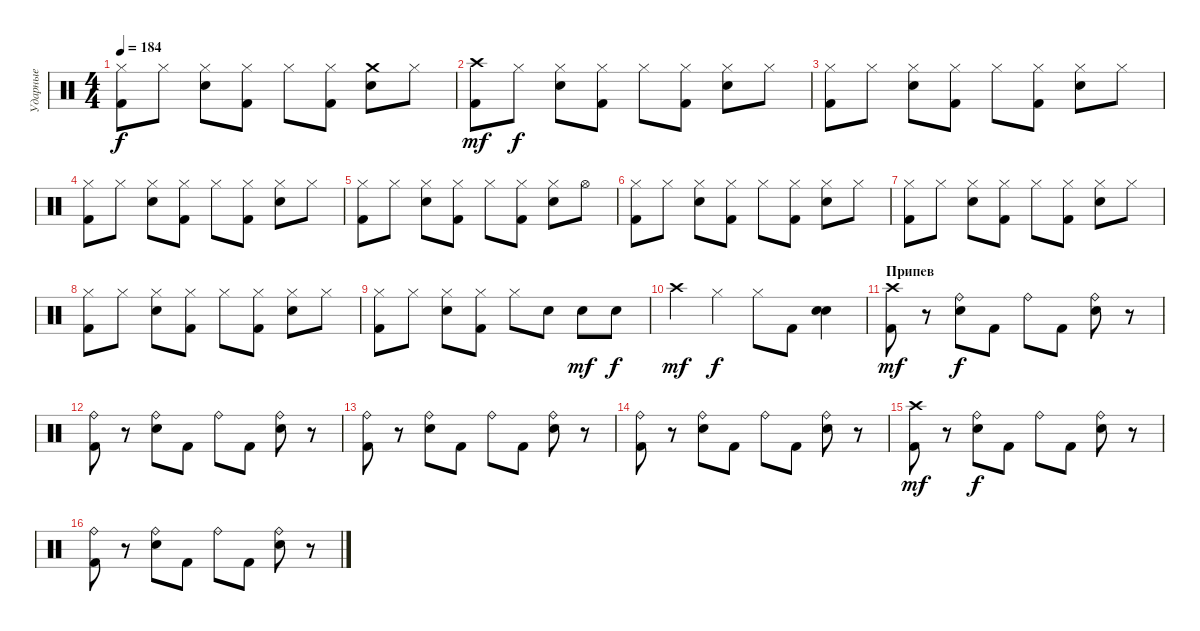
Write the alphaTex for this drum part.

\track ("Ударные" "Ударные") {instrument percussion}
\staff {score}
\articulation defaults
\ts (4 4)
\tempo 184
\clef neutral
\ks c
("Hi-Hat (closed)" "Kick (hit) 2").8{dy f} "Hi-Hat (closed)".8 ("Hi-Hat (closed)" "Snare (hit) 2").8 ("Hi-Hat (closed)" "Kick (hit) 2").8 "Hi-Hat (closed)".8 ("Hi-Hat (closed)" "Kick (hit) 2").8 ("Crash medium (hit)" "Snare (hit) 2").8 "Hi-Hat (closed)".8 |
("Crash high (hit)" "Kick (hit) 2").8{dy mf} "Hi-Hat (closed)".8{dy f} ("Hi-Hat (closed)" "Snare (hit) 2").8 ("Hi-Hat (closed)" "Kick (hit) 2").8 "Hi-Hat (closed)".8 ("Hi-Hat (closed)" "Kick (hit) 2").8 ("Hi-Hat (closed)" "Snare (hit) 2").8 "Hi-Hat (closed)".8 |
("Hi-Hat (closed)" "Kick (hit) 2").8 "Hi-Hat (closed)".8 ("Hi-Hat (closed)" "Snare (hit) 2").8 ("Hi-Hat (closed)" "Kick (hit) 2").8 "Hi-Hat (closed)".8 ("Hi-Hat (closed)" "Kick (hit) 2").8 ("Hi-Hat (closed)" "Snare (hit) 2").8 "Hi-Hat (closed)".8 |
("Hi-Hat (closed)" "Kick (hit) 2").8 "Hi-Hat (closed)".8 ("Hi-Hat (closed)" "Snare (hit) 2").8 ("Hi-Hat (closed)" "Kick (hit) 2").8 "Hi-Hat (closed)".8 ("Hi-Hat (closed)" "Kick (hit) 2").8 ("Hi-Hat (closed)" "Snare (hit) 2").8 "Hi-Hat (closed)".8 |
("Hi-Hat (closed)" "Kick (hit) 2").8 "Hi-Hat (closed)".8 ("Hi-Hat (closed)" "Snare (hit) 2").8 ("Hi-Hat (closed)" "Kick (hit) 2").8 "Hi-Hat (closed)".8 ("Hi-Hat (closed)" "Kick (hit) 2").8 ("Hi-Hat (closed)" "Snare (hit) 2").8 "Hi-Hat (open)".8 |
("Hi-Hat (closed)" "Kick (hit) 2").8 "Hi-Hat (closed)".8 ("Hi-Hat (closed)" "Snare (hit) 2").8 ("Hi-Hat (closed)" "Kick (hit) 2").8 "Hi-Hat (closed)".8 ("Hi-Hat (closed)" "Kick (hit) 2").8 ("Hi-Hat (closed)" "Snare (hit) 2").8 "Hi-Hat (closed)".8 |
("Hi-Hat (closed)" "Kick (hit) 2").8 "Hi-Hat (closed)".8 ("Hi-Hat (closed)" "Snare (hit) 2").8 ("Hi-Hat (closed)" "Kick (hit) 2").8 "Hi-Hat (closed)".8 ("Hi-Hat (closed)" "Kick (hit) 2").8 ("Hi-Hat (closed)" "Snare (hit) 2").8 "Hi-Hat (closed)".8 |
("Hi-Hat (closed)" "Kick (hit) 2").8 "Hi-Hat (closed)".8 ("Hi-Hat (closed)" "Snare (hit) 2").8 ("Hi-Hat (closed)" "Kick (hit) 2").8 "Hi-Hat (closed)".8 ("Hi-Hat (closed)" "Kick (hit) 2").8 ("Hi-Hat (closed)" "Snare (hit) 2").8 "Hi-Hat (closed)".8 |
("Hi-Hat (closed)" "Kick (hit) 2").8 "Hi-Hat (closed)".8 ("Hi-Hat (closed)" "Snare (hit) 2").8 ("Hi-Hat (closed)" "Kick (hit) 2").8 "Hi-Hat (closed)".8 "Snare (hit) 2".8 "Snare (hit) 2".8{dy mf} "Snare (hit) 2".8{dy f} |
"Crash high (hit)".4{dy mf} "Hi-Hat (closed)".4{dy f} "Hi-Hat (closed)".8 "Kick (hit) 2".8 ("Snare (hit) 2" "Snare (hit) 2").4 |
\section ("" "Припев")
("Crash high (hit)" "Kick (hit) 2").8{dy mf} r.8 ("Ride (bell)" "Snare (hit) 2").8{dy f} "Kick (hit) 2".8 "Ride (bell)".8 "Kick (hit) 2".8 ("Ride (bell)" "Snare (hit) 2").8 r.8 |
("Ride (bell)" "Kick (hit) 2").8 r.8 ("Ride (bell)" "Snare (hit) 2").8 "Kick (hit) 2".8 "Ride (bell)".8 "Kick (hit) 2".8 ("Ride (bell)" "Snare (hit) 2").8 r.8 |
("Ride (bell)" "Kick (hit) 2").8 r.8 ("Ride (bell)" "Snare (hit) 2").8 "Kick (hit) 2".8 "Ride (bell)".8 "Kick (hit) 2".8 ("Ride (bell)" "Snare (hit) 2").8 r.8 |
("Ride (bell)" "Kick (hit) 2").8 r.8 ("Ride (bell)" "Snare (hit) 2").8 "Kick (hit) 2".8 "Ride (bell)".8 "Kick (hit) 2".8 ("Ride (bell)" "Snare (hit) 2").8 r.8 |
("Crash high (hit)" "Kick (hit) 2").8{dy mf} r.8 ("Ride (bell)" "Snare (hit) 2").8{dy f} "Kick (hit) 2".8 "Ride (bell)".8 "Kick (hit) 2".8 ("Ride (bell)" "Snare (hit) 2").8 r.8 |
("Ride (bell)" "Kick (hit) 2").8 r.8 ("Ride (bell)" "Snare (hit) 2").8 "Kick (hit) 2".8 "Ride (bell)".8 "Kick (hit) 2".8 ("Ride (bell)" "Snare (hit) 2").8 r.8
